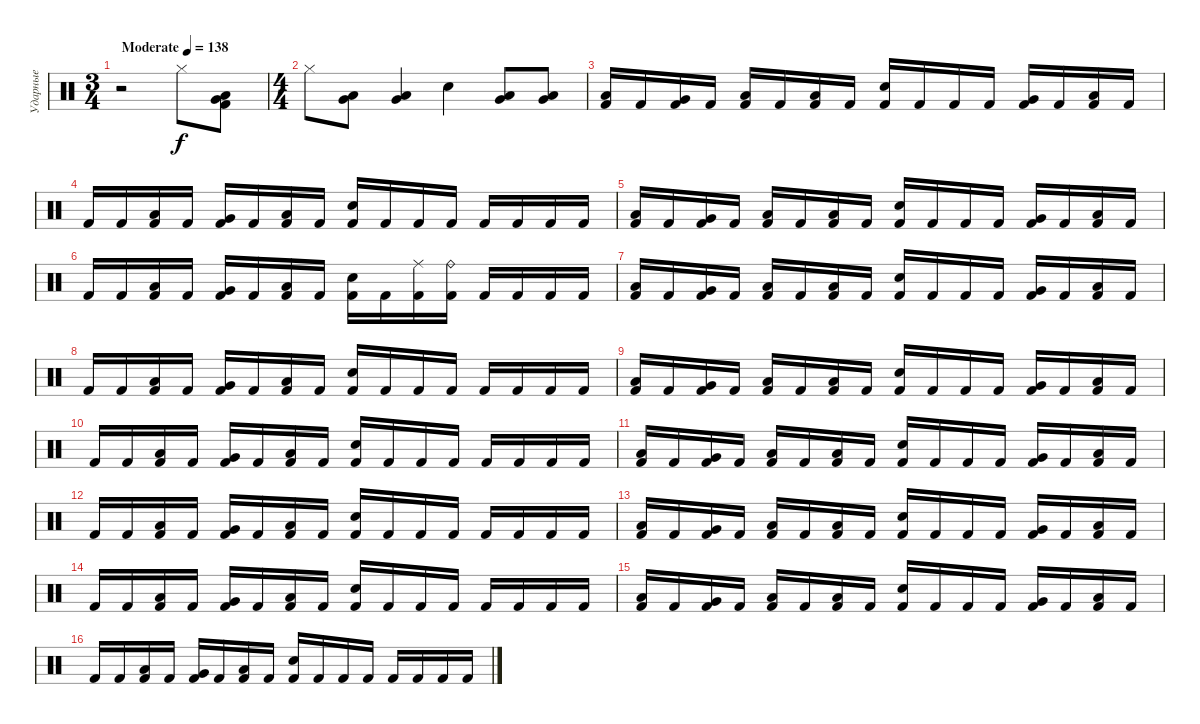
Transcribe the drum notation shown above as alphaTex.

\track ("Ударные" "Ударные") {instrument percussion}
\staff {score}
\articulation defaults
\ts (3 4)
\tempo (138 "Moderate")
\clef neutral
\ks c
r.2{dy f} "Hi-Hat (closed)".8 ("Very Low Tom (hit)" "Low Tom (hit)" "Kick (hit) 2").8 |
\ts (4 4)
"Hi-Hat (closed)".8 ("Very Low Tom (hit)" "Low Tom (hit)").8 ("Very Low Tom (hit)" "Low Floor Tom (hit)").4 "Snare (hit) 2".4 ("Very Low Tom (hit)" "Low Tom (hit)").8 ("Very Low Tom (hit)" "Low Floor Tom (hit)").8 |
("Low Tom (hit)" "Kick (hit) 2").16 "Kick (hit) 2".16 ("Very Low Tom (hit)" "Kick (hit) 2").16 "Kick (hit) 2".16 ("Low Floor Tom (hit)" "Kick (hit) 2").16 "Kick (hit) 2".16 ("Low Floor Tom (hit)" "Kick (hit) 2").16 "Kick (hit) 2".16 ("Snare (hit) 2" "Kick (hit) 2").16 "Kick (hit) 2".16 "Kick (hit) 2".16 "Kick (hit) 2".16 ("Very Low Tom (hit)" "Kick (hit) 2").16 "Kick (hit) 2".16 ("Low Tom (hit)" "Kick (hit) 2").16 "Kick (hit) 2".16 |
"Kick (hit) 2".16 "Kick (hit) 2".16 ("Low Tom (hit)" "Kick (hit) 2").16 "Kick (hit) 2".16 ("Very Low Tom (hit)" "Kick (hit) 2").16 "Kick (hit) 2".16 ("Low Floor Tom (hit)" "Kick (hit) 2").16 "Kick (hit) 2".16 ("Snare (hit) 2" "Kick (hit) 2").16 "Kick (hit) 2".16 "Kick (hit) 2".16 "Kick (hit) 2".16 "Kick (hit) 2".16 "Kick (hit) 2".16 "Kick (hit) 2".16 "Kick (hit) 2".16 |
("Low Tom (hit)" "Kick (hit) 2").16 "Kick (hit) 2".16 ("Very Low Tom (hit)" "Kick (hit) 2").16 "Kick (hit) 2".16 ("Low Floor Tom (hit)" "Kick (hit) 2").16 "Kick (hit) 2".16 ("Low Floor Tom (hit)" "Kick (hit) 2").16 "Kick (hit) 2".16 ("Snare (hit) 2" "Kick (hit) 2").16 "Kick (hit) 2".16 "Kick (hit) 2".16 "Kick (hit) 2".16 ("Very Low Tom (hit)" "Kick (hit) 2").16 "Kick (hit) 2".16 ("Low Tom (hit)" "Kick (hit) 2").16 "Kick (hit) 2".16 |
"Kick (hit) 2".16 "Kick (hit) 2".16 ("Low Tom (hit)" "Kick (hit) 2").16 "Kick (hit) 2".16 ("Very Low Tom (hit)" "Kick (hit) 2").16 "Kick (hit) 2".16 ("Low Floor Tom (hit)" "Kick (hit) 2").16 "Kick (hit) 2".16 ("Snare (hit) 2" "Kick (hit) 2").16 "Kick (hit) 2".16 ("Ride (middle)" "Kick (hit) 2").16 ("Ride (bell)" "Kick (hit) 2").16 "Kick (hit) 2".16 "Kick (hit) 2".16 "Kick (hit) 2".16 "Kick (hit) 2".16 |
("Low Tom (hit)" "Kick (hit) 2").16 "Kick (hit) 2".16 ("Very Low Tom (hit)" "Kick (hit) 2").16 "Kick (hit) 2".16 ("Low Floor Tom (hit)" "Kick (hit) 2").16 "Kick (hit) 2".16 ("Low Floor Tom (hit)" "Kick (hit) 2").16 "Kick (hit) 2".16 ("Snare (hit) 2" "Kick (hit) 2").16 "Kick (hit) 2".16 "Kick (hit) 2".16 "Kick (hit) 2".16 ("Very Low Tom (hit)" "Kick (hit) 2").16 "Kick (hit) 2".16 ("Low Tom (hit)" "Kick (hit) 2").16 "Kick (hit) 2".16 |
"Kick (hit) 2".16 "Kick (hit) 2".16 ("Low Tom (hit)" "Kick (hit) 2").16 "Kick (hit) 2".16 ("Very Low Tom (hit)" "Kick (hit) 2").16 "Kick (hit) 2".16 ("Low Floor Tom (hit)" "Kick (hit) 2").16 "Kick (hit) 2".16 ("Snare (hit) 2" "Kick (hit) 2").16 "Kick (hit) 2".16 "Kick (hit) 2".16 "Kick (hit) 2".16 "Kick (hit) 2".16 "Kick (hit) 2".16 "Kick (hit) 2".16 "Kick (hit) 2".16 |
("Low Tom (hit)" "Kick (hit) 2").16 "Kick (hit) 2".16 ("Very Low Tom (hit)" "Kick (hit) 2").16 "Kick (hit) 2".16 ("Low Floor Tom (hit)" "Kick (hit) 2").16 "Kick (hit) 2".16 ("Low Floor Tom (hit)" "Kick (hit) 2").16 "Kick (hit) 2".16 ("Snare (hit) 2" "Kick (hit) 2").16 "Kick (hit) 2".16 "Kick (hit) 2".16 "Kick (hit) 2".16 ("Very Low Tom (hit)" "Kick (hit) 2").16 "Kick (hit) 2".16 ("Low Tom (hit)" "Kick (hit) 2").16 "Kick (hit) 2".16 |
"Kick (hit) 2".16 "Kick (hit) 2".16 ("Low Tom (hit)" "Kick (hit) 2").16 "Kick (hit) 2".16 ("Very Low Tom (hit)" "Kick (hit) 2").16 "Kick (hit) 2".16 ("Low Floor Tom (hit)" "Kick (hit) 2").16 "Kick (hit) 2".16 ("Snare (hit) 2" "Kick (hit) 2").16 "Kick (hit) 2".16 "Kick (hit) 2".16 "Kick (hit) 2".16 "Kick (hit) 2".16 "Kick (hit) 2".16 "Kick (hit) 2".16 "Kick (hit) 2".16 |
("Low Tom (hit)" "Kick (hit) 2").16 "Kick (hit) 2".16 ("Very Low Tom (hit)" "Kick (hit) 2").16 "Kick (hit) 2".16 ("Low Floor Tom (hit)" "Kick (hit) 2").16 "Kick (hit) 2".16 ("Low Floor Tom (hit)" "Kick (hit) 2").16 "Kick (hit) 2".16 ("Snare (hit) 2" "Kick (hit) 2").16 "Kick (hit) 2".16 "Kick (hit) 2".16 "Kick (hit) 2".16 ("Very Low Tom (hit)" "Kick (hit) 2").16 "Kick (hit) 2".16 ("Low Tom (hit)" "Kick (hit) 2").16 "Kick (hit) 2".16 |
"Kick (hit) 2".16 "Kick (hit) 2".16 ("Low Tom (hit)" "Kick (hit) 2").16 "Kick (hit) 2".16 ("Very Low Tom (hit)" "Kick (hit) 2").16 "Kick (hit) 2".16 ("Low Floor Tom (hit)" "Kick (hit) 2").16 "Kick (hit) 2".16 ("Snare (hit) 2" "Kick (hit) 2").16 "Kick (hit) 2".16 "Kick (hit) 2".16 "Kick (hit) 2".16 "Kick (hit) 2".16 "Kick (hit) 2".16 "Kick (hit) 2".16 "Kick (hit) 2".16 |
("Low Tom (hit)" "Kick (hit) 2").16 "Kick (hit) 2".16 ("Very Low Tom (hit)" "Kick (hit) 2").16 "Kick (hit) 2".16 ("Low Floor Tom (hit)" "Kick (hit) 2").16 "Kick (hit) 2".16 ("Low Floor Tom (hit)" "Kick (hit) 2").16 "Kick (hit) 2".16 ("Snare (hit) 2" "Kick (hit) 2").16 "Kick (hit) 2".16 "Kick (hit) 2".16 "Kick (hit) 2".16 ("Very Low Tom (hit)" "Kick (hit) 2").16 "Kick (hit) 2".16 ("Low Tom (hit)" "Kick (hit) 2").16 "Kick (hit) 2".16 |
"Kick (hit) 2".16 "Kick (hit) 2".16 ("Low Tom (hit)" "Kick (hit) 2").16 "Kick (hit) 2".16 ("Very Low Tom (hit)" "Kick (hit) 2").16 "Kick (hit) 2".16 ("Low Floor Tom (hit)" "Kick (hit) 2").16 "Kick (hit) 2".16 ("Snare (hit) 2" "Kick (hit) 2").16 "Kick (hit) 2".16 "Kick (hit) 2".16 "Kick (hit) 2".16 "Kick (hit) 2".16 "Kick (hit) 2".16 "Kick (hit) 2".16 "Kick (hit) 2".16 |
("Low Tom (hit)" "Kick (hit) 2").16 "Kick (hit) 2".16 ("Very Low Tom (hit)" "Kick (hit) 2").16 "Kick (hit) 2".16 ("Low Floor Tom (hit)" "Kick (hit) 2").16 "Kick (hit) 2".16 ("Low Floor Tom (hit)" "Kick (hit) 2").16 "Kick (hit) 2".16 ("Snare (hit) 2" "Kick (hit) 2").16 "Kick (hit) 2".16 "Kick (hit) 2".16 "Kick (hit) 2".16 ("Very Low Tom (hit)" "Kick (hit) 2").16 "Kick (hit) 2".16 ("Low Tom (hit)" "Kick (hit) 2").16 "Kick (hit) 2".16 |
"Kick (hit) 2".16 "Kick (hit) 2".16 ("Low Tom (hit)" "Kick (hit) 2").16 "Kick (hit) 2".16 ("Very Low Tom (hit)" "Kick (hit) 2").16 "Kick (hit) 2".16 ("Low Floor Tom (hit)" "Kick (hit) 2").16 "Kick (hit) 2".16 ("Snare (hit) 2" "Kick (hit) 2").16 "Kick (hit) 2".16 "Kick (hit) 2".16 "Kick (hit) 2".16 "Kick (hit) 2".16 "Kick (hit) 2".16 "Kick (hit) 2".16 "Kick (hit) 2".16
